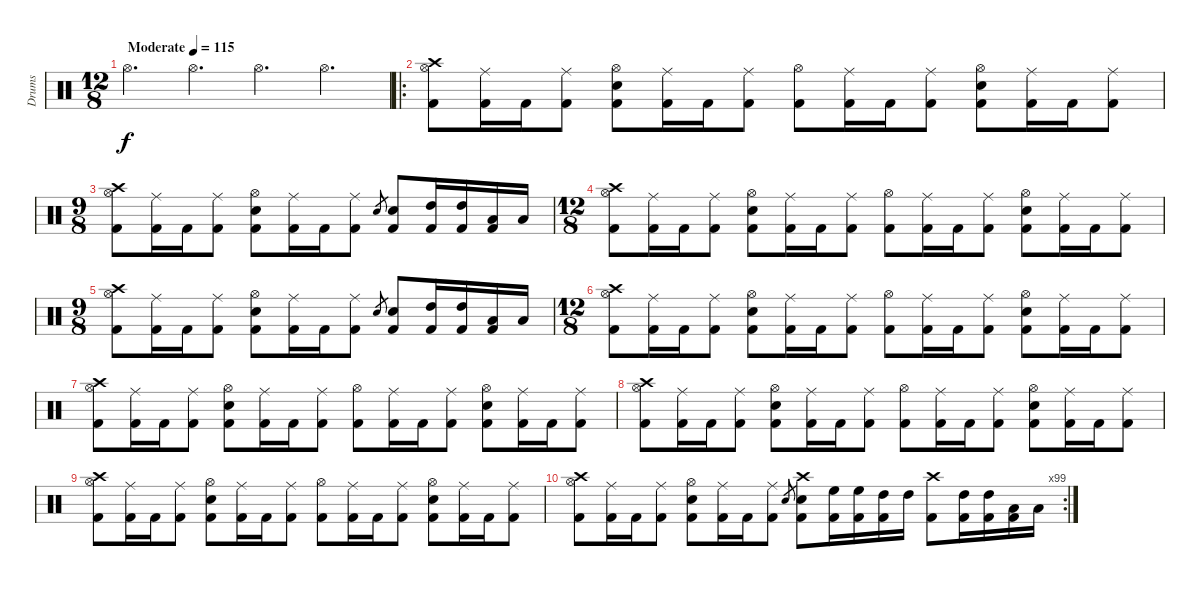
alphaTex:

\track ("Drums" "Drums") {instrument percussion}
\staff {score}
\articulation defaults
\ts (12 8)
\tempo (115 "Moderate")
\clef neutral
\ks c "Hi-Hat (open)".4{d dy f} "Hi-Hat (open)".4{d} "Hi-Hat (open)".4{d} "Hi-Hat (open)".4{d}
|
\ro
("Crash high (hit)" "Hi-Hat (open)" "Kick (hit) 2").8 ("Ride (middle)" "Kick (hit) 2").16 "Kick (hit) 2".16 ("Ride (middle)" "Kick (hit) 2").8 ("Hi-Hat (open)" "Snare (hit) 2" "Kick (hit) 2").8 ("Ride (middle)" "Kick (hit) 2").16 "Kick (hit) 2".16 ("Ride (middle)" "Kick (hit) 2").8 ("Hi-Hat (open)" "Kick (hit) 2").8 ("Ride (middle)" "Kick (hit) 2").16 "Kick (hit) 2".16 ("Ride (middle)" "Kick (hit) 2").8 ("Hi-Hat (open)" "Snare (hit) 2" "Kick (hit) 2").8 ("Ride (middle)" "Kick (hit) 2").16 "Kick (hit) 2".16 ("Ride (middle)" "Kick (hit) 2").8 |
\ts (9 8)
("Crash high (hit)" "Hi-Hat (open)" "Kick (hit) 2").8 ("Ride (middle)" "Kick (hit) 2").16 "Kick (hit) 2".16 ("Ride (middle)" "Kick (hit) 2").8 ("Hi-Hat (open)" "Snare (hit) 2" "Kick (hit) 2").8 ("Ride (middle)" "Kick (hit) 2").16 "Kick (hit) 2".16 ("Ride (middle)" "Kick (hit) 2").8 "Snare (hit) 2".8{gr} ("Snare (hit) 2" "Kick (hit) 2").8 ("High Tom (hit)" "Kick (hit) 2").16 ("High Tom (hit)" "Kick (hit) 2").16 ("Low Tom (hit)" "Kick (hit) 2").16 "Low Tom (hit)".16 |
\ts (12 8)
("Crash high (hit)" "Hi-Hat (open)" "Kick (hit) 2").8 ("Ride (middle)" "Kick (hit) 2").16 "Kick (hit) 2".16 ("Ride (middle)" "Kick (hit) 2").8 ("Hi-Hat (open)" "Snare (hit) 2" "Kick (hit) 2").8 ("Ride (middle)" "Kick (hit) 2").16 "Kick (hit) 2".16 ("Ride (middle)" "Kick (hit) 2").8 ("Hi-Hat (open)" "Kick (hit) 2").8 ("Ride (middle)" "Kick (hit) 2").16 "Kick (hit) 2".16 ("Ride (middle)" "Kick (hit) 2").8 ("Hi-Hat (open)" "Snare (hit) 2" "Kick (hit) 2").8 ("Ride (middle)" "Kick (hit) 2").16 "Kick (hit) 2".16 ("Ride (middle)" "Kick (hit) 2").8 |
\ts (9 8)
("Crash high (hit)" "Hi-Hat (open)" "Kick (hit) 2").8 ("Ride (middle)" "Kick (hit) 2").16 "Kick (hit) 2".16 ("Ride (middle)" "Kick (hit) 2").8 ("Hi-Hat (open)" "Snare (hit) 2" "Kick (hit) 2").8 ("Ride (middle)" "Kick (hit) 2").16 "Kick (hit) 2".16 ("Ride (middle)" "Kick (hit) 2").8 "Snare (hit) 2".8{gr} ("Snare (hit) 2" "Kick (hit) 2").8 ("High Tom (hit)" "Kick (hit) 2").16 ("High Tom (hit)" "Kick (hit) 2").16 ("Low Tom (hit)" "Kick (hit) 2").16 "Low Tom (hit)".16 |
\ts (12 8)
("Crash high (hit)" "Hi-Hat (open)" "Kick (hit) 2").8 ("Ride (middle)" "Kick (hit) 2").16 "Kick (hit) 2".16 ("Ride (middle)" "Kick (hit) 2").8 ("Hi-Hat (open)" "Snare (hit) 2" "Kick (hit) 2").8 ("Ride (middle)" "Kick (hit) 2").16 "Kick (hit) 2".16 ("Ride (middle)" "Kick (hit) 2").8 ("Hi-Hat (open)" "Kick (hit) 2").8 ("Ride (middle)" "Kick (hit) 2").16 "Kick (hit) 2".16 ("Ride (middle)" "Kick (hit) 2").8 ("Hi-Hat (open)" "Snare (hit) 2" "Kick (hit) 2").8 ("Ride (middle)" "Kick (hit) 2").16 "Kick (hit) 2".16 ("Ride (middle)" "Kick (hit) 2").8 |
("Crash high (hit)" "Hi-Hat (open)" "Kick (hit) 2").8 ("Ride (middle)" "Kick (hit) 2").16 "Kick (hit) 2".16 ("Ride (middle)" "Kick (hit) 2").8 ("Hi-Hat (open)" "Snare (hit) 2" "Kick (hit) 2").8 ("Ride (middle)" "Kick (hit) 2").16 "Kick (hit) 2".16 ("Ride (middle)" "Kick (hit) 2").8 ("Hi-Hat (open)" "Kick (hit) 2").8 ("Ride (middle)" "Kick (hit) 2").16 "Kick (hit) 2".16 ("Ride (middle)" "Kick (hit) 2").8 ("Hi-Hat (open)" "Snare (hit) 2" "Kick (hit) 2").8 ("Ride (middle)" "Kick (hit) 2").16 "Kick (hit) 2".16 ("Ride (middle)" "Kick (hit) 2").8 |
("Crash high (hit)" "Hi-Hat (open)" "Kick (hit) 2").8 ("Ride (middle)" "Kick (hit) 2").16 "Kick (hit) 2".16 ("Ride (middle)" "Kick (hit) 2").8 ("Hi-Hat (open)" "Snare (hit) 2" "Kick (hit) 2").8 ("Ride (middle)" "Kick (hit) 2").16 "Kick (hit) 2".16 ("Ride (middle)" "Kick (hit) 2").8 ("Hi-Hat (open)" "Kick (hit) 2").8 ("Ride (middle)" "Kick (hit) 2").16 "Kick (hit) 2".16 ("Ride (middle)" "Kick (hit) 2").8 ("Hi-Hat (open)" "Snare (hit) 2" "Kick (hit) 2").8 ("Ride (middle)" "Kick (hit) 2").16 "Kick (hit) 2".16 ("Ride (middle)" "Kick (hit) 2").8 |
("Crash high (hit)" "Hi-Hat (open)" "Kick (hit) 2").8 ("Ride (middle)" "Kick (hit) 2").16 "Kick (hit) 2".16 ("Ride (middle)" "Kick (hit) 2").8 ("Hi-Hat (open)" "Snare (hit) 2" "Kick (hit) 2").8 ("Ride (middle)" "Kick (hit) 2").16 "Kick (hit) 2".16 ("Ride (middle)" "Kick (hit) 2").8 ("Hi-Hat (open)" "Kick (hit) 2").8 ("Ride (middle)" "Kick (hit) 2").16 "Kick (hit) 2".16 ("Ride (middle)" "Kick (hit) 2").8 ("Hi-Hat (open)" "Snare (hit) 2" "Kick (hit) 2").8 ("Ride (middle)" "Kick (hit) 2").16 "Kick (hit) 2".16 ("Ride (middle)" "Kick (hit) 2").8 |
\rc 99
("Crash high (hit)" "Hi-Hat (open)" "Kick (hit) 2").8 ("Ride (middle)" "Kick (hit) 2").16 "Kick (hit) 2".16 ("Ride (middle)" "Kick (hit) 2").8 ("Hi-Hat (open)" "Snare (hit) 2" "Kick (hit) 2").8 ("Ride (middle)" "Kick (hit) 2").16 "Kick (hit) 2".16 ("Ride (middle)" "Kick (hit) 2").8 "Snare (hit) 2".8{gr} ("Crash high (hit)" "Snare (hit) 2" "Kick (hit) 2").8 ("High Floor Tom (hit)" "Kick (hit) 2").16 ("High Floor Tom (hit)" "Kick (hit) 2").16 ("High Tom (hit)" "Kick (hit) 2").16 "High Tom (hit)".16 ("Crash high (hit)" "Kick (hit) 2").8 ("High Tom (hit)" "Kick (hit) 2").16 ("High Tom (hit)" "Kick (hit) 2").16 ("Low Tom (hit)" "Kick (hit) 2").16 "Low Tom (hit)".16
